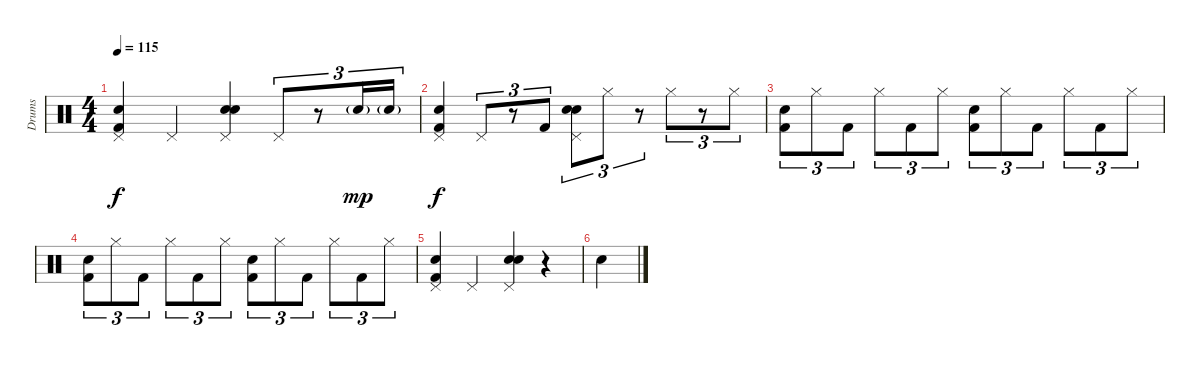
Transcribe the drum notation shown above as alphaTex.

\track ("Drums" "Drums") {instrument percussion}
\staff {score}
\articulation defaults
\ts (4 4)
\tempo 115
\clef neutral
\ks c
("Pedal Hi-Hat (hit)" "Hand Clap (hit)" "Kick (hit) 2").4{dy f} "Pedal Hi-Hat (hit)".4 ("Pedal Hi-Hat (hit)" "Hand Clap (hit)" "Electric Snare (hit)").4 "Pedal Hi-Hat (hit)".8{tu (3 2)} r.8{tu (3 2)} "Electric Snare (hit)"{g}.16{tu (3 2) dy mp} "Electric Snare (hit)"{g}.16{tu (3 2)} |
("Pedal Hi-Hat (hit)" "Hand Clap (hit)" "Kick (hit) 2").4{dy f} "Pedal Hi-Hat (hit)".8{tu (3 2)} r.8{tu (3 2)} "Kick (hit) 2".8{tu (3 2)} ("Pedal Hi-Hat (hit)" "Hand Clap (hit)" "Electric Snare (hit)").8{tu (3 2)} "Hi-Hat (closed)".8{tu (3 2)} r.8{tu (3 2)} "Hi-Hat (closed)".8{tu (3 2)} r.8{tu (3 2)} "Hi-Hat (closed)".8{tu (3 2)} |
("Hand Clap (hit)" "Kick (hit) 2").8{tu (3 2)} "Hi-Hat (closed)".8{tu (3 2)} "Kick (hit) 2".8{tu (3 2)} "Hi-Hat (closed)".8{tu (3 2)} "Kick (hit) 2".8{tu (3 2)} "Hi-Hat (closed)".8{tu (3 2)} ("Hand Clap (hit)" "Kick (hit) 2").8{tu (3 2)} "Hi-Hat (closed)".8{tu (3 2)} "Kick (hit) 2".8{tu (3 2)} "Hi-Hat (closed)".8{tu (3 2)} "Kick (hit) 2".8{tu (3 2)} "Hi-Hat (closed)".8{tu (3 2)} |
("Hand Clap (hit)" "Kick (hit) 2").8{tu (3 2)} "Hi-Hat (closed)".8{tu (3 2)} "Kick (hit) 2".8{tu (3 2)} "Hi-Hat (closed)".8{tu (3 2)} "Kick (hit) 2".8{tu (3 2)} "Hi-Hat (closed)".8{tu (3 2)} ("Hand Clap (hit)" "Kick (hit) 2").8{tu (3 2)} "Hi-Hat (closed)".8{tu (3 2)} "Kick (hit) 2".8{tu (3 2)} "Hi-Hat (closed)".8{tu (3 2)} "Kick (hit) 2".8{tu (3 2)} "Hi-Hat (closed)".8{tu (3 2)} |
("Pedal Hi-Hat (hit)" "Hand Clap (hit)" "Kick (hit) 2").4 "Pedal Hi-Hat (hit)".4 ("Pedal Hi-Hat (hit)" "Hand Clap (hit)" "Electric Snare (hit)").4 r.4 |
"Hand Clap (hit)".4
